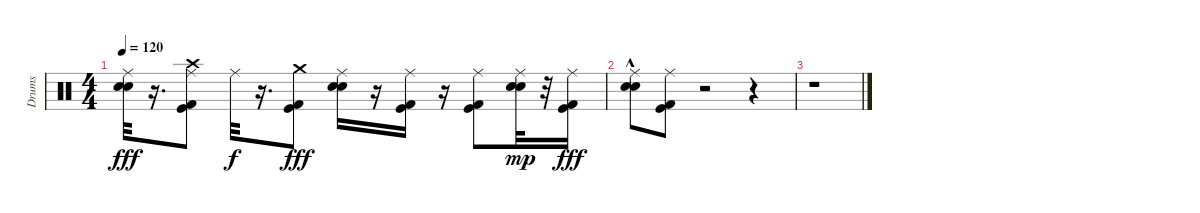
\track ("Drums" "Drums") {instrument percussion}
\staff {score}
\articulation defaults
\ts (4 4)
\tempo 120
\clef neutral
\ks c
("Ride (middle)" "Snare (hit) 2" "Electric Snare (hit)").32{dy fff} r.16{d} ("Ride (middle)" "Crash high (hit)" "Kick (hit) 2" "Kick (hit)").8 "Ride (middle)".32{dy f} r.16{d} ("Crash medium (hit)" "Kick (hit) 2" "Kick (hit)").8{dy fff} ("Ride (middle)" "Electric Snare (hit)" "Snare (hit) 2").16 r.16 ("Ride (middle)" "Kick (hit) 2" "Kick (hit)").16 r.16 ("Ride (middle)" "Kick (hit) 2" "Kick (hit)").8 ("Ride (middle)" "Snare (hit) 2" "Electric Snare (hit)").32{dy mp} r.32 ("Ride (middle)" "Kick (hit) 2" "Kick (hit)").16{dy fff} |
("Ride (middle)" "Snare (hit) 2"{hac} "Electric Snare (hit)").8 ("Ride (middle)" "Kick (hit)" "Kick (hit) 2").8 r.2 r.4 |
r.1
